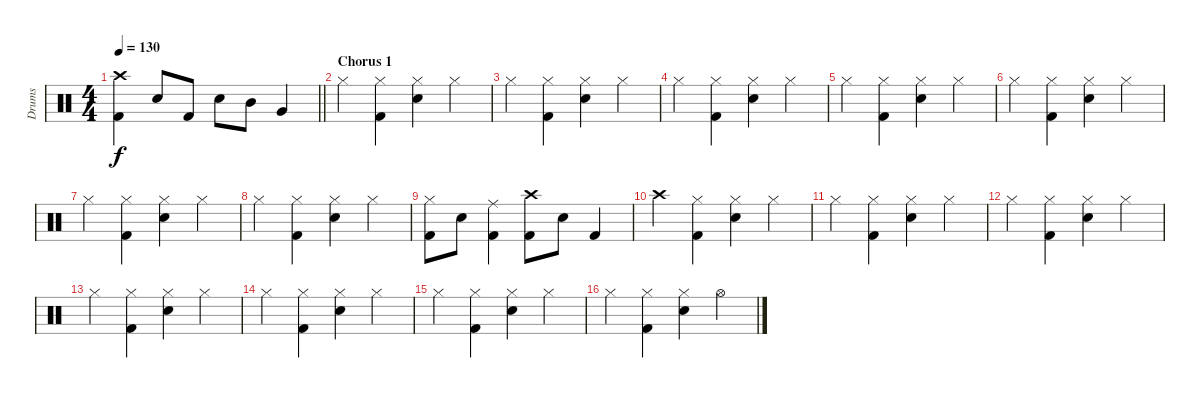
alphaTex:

\track ("Drums" "Drums") {instrument percussion}
\staff {score}
\articulation defaults
\ts (4 4)
\tempo 130
\clef neutral
\barLineRight lightlight
\ks c
("Crash high (hit)" "Kick (hit) 2").4{dy f} "Snare (hit) 2".8 "Kick (hit) 2".8 "Snare (hit) 2".8 "Mid Tom (hit)".8 "Very Low Tom (hit)".4 |
\section ("" "Chorus 1")
"Hi-Hat (closed)".4 ("Hi-Hat (closed)" "Kick (hit) 2").4 ("Hi-Hat (closed)" "Snare (hit) 2").4 "Hi-Hat (closed)".4 |
"Hi-Hat (closed)".4 ("Hi-Hat (closed)" "Kick (hit) 2").4 ("Hi-Hat (closed)" "Snare (hit) 2").4 "Hi-Hat (closed)".4 |
"Hi-Hat (closed)".4 ("Hi-Hat (closed)" "Kick (hit) 2").4 ("Hi-Hat (closed)" "Snare (hit) 2").4 "Hi-Hat (closed)".4 |
"Hi-Hat (closed)".4 ("Hi-Hat (closed)" "Kick (hit) 2").4 ("Hi-Hat (closed)" "Snare (hit) 2").4 "Hi-Hat (closed)".4 |
"Hi-Hat (closed)".4 ("Hi-Hat (closed)" "Kick (hit) 2").4 ("Hi-Hat (closed)" "Snare (hit) 2").4 "Hi-Hat (closed)".4 |
"Hi-Hat (closed)".4 ("Hi-Hat (closed)" "Kick (hit) 2").4 ("Hi-Hat (closed)" "Snare (hit) 2").4 "Hi-Hat (closed)".4 |
"Hi-Hat (closed)".4 ("Hi-Hat (closed)" "Kick (hit) 2").4 ("Hi-Hat (closed)" "Snare (hit) 2").4 "Hi-Hat (closed)".4 |
("Hi-Hat (closed)" "Kick (hit) 2").8 "Snare (hit) 2".8 ("Ride (middle)" "Kick (hit) 2").4 ("Crash high (hit)" "Kick (hit) 2").8 "Snare (hit) 2".8 "Kick (hit) 2".4 |
"Crash high (hit)".4 ("Hi-Hat (closed)" "Kick (hit) 2").4 ("Hi-Hat (closed)" "Snare (hit) 2").4 "Hi-Hat (closed)".4 |
"Hi-Hat (closed)".4 ("Hi-Hat (closed)" "Kick (hit) 2").4 ("Hi-Hat (closed)" "Snare (hit) 2").4 "Hi-Hat (closed)".4 |
"Hi-Hat (closed)".4 ("Hi-Hat (closed)" "Kick (hit) 2").4 ("Hi-Hat (closed)" "Snare (hit) 2").4 "Hi-Hat (closed)".4 |
"Hi-Hat (closed)".4 ("Hi-Hat (closed)" "Kick (hit) 2").4 ("Hi-Hat (closed)" "Snare (hit) 2").4 "Hi-Hat (closed)".4 |
"Hi-Hat (closed)".4 ("Hi-Hat (closed)" "Kick (hit) 2").4 ("Hi-Hat (closed)" "Snare (hit) 2").4 "Hi-Hat (closed)".4 |
"Hi-Hat (closed)".4 ("Hi-Hat (closed)" "Kick (hit) 2").4 ("Hi-Hat (closed)" "Snare (hit) 2").4 "Hi-Hat (closed)".4 |
"Hi-Hat (closed)".4 ("Hi-Hat (closed)" "Kick (hit) 2").4 ("Hi-Hat (closed)" "Snare (hit) 2").4 "Hi-Hat (open)".4
